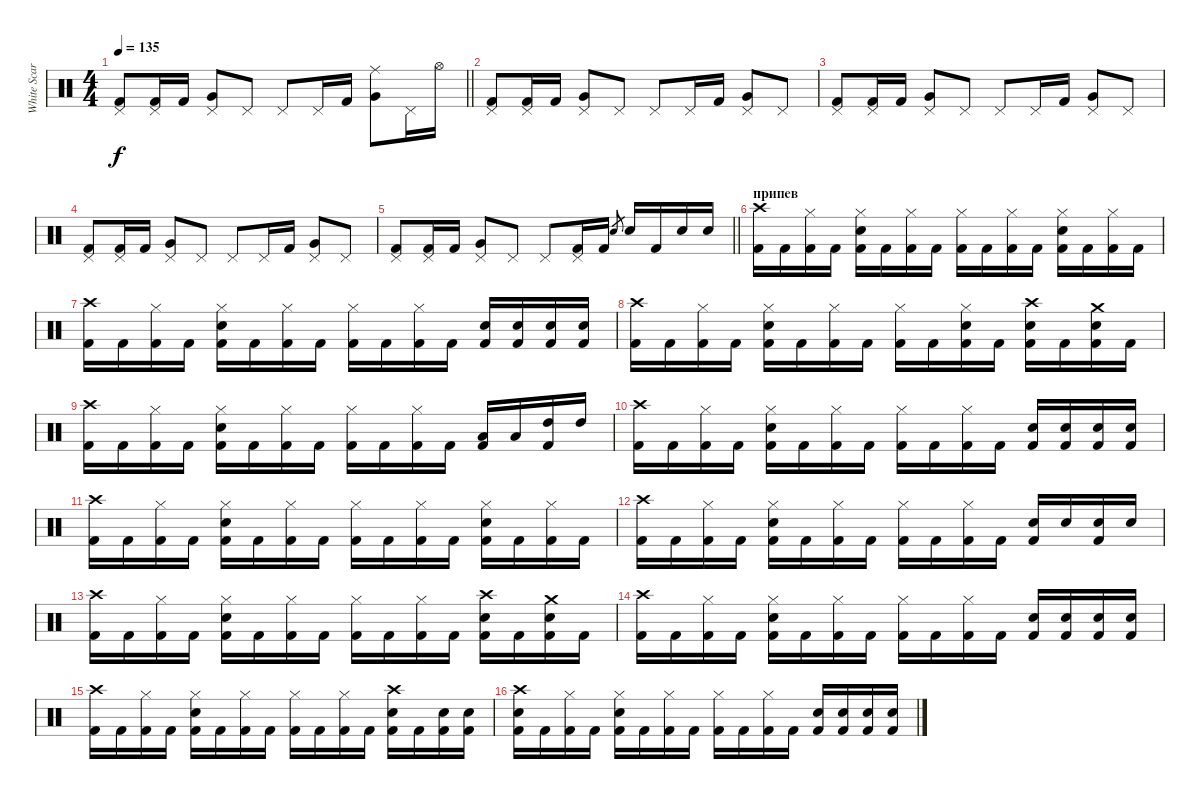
\track ("White Scar" "White Scar") {instrument percussion}
\staff {score}
\articulation defaults
\ts (4 4)
\tempo 135
\clef neutral
\barLineRight lightlight
\ks c
("Pedal Hi-Hat (hit)" "Kick (hit) 2").8{dy f} ("Pedal Hi-Hat (hit)" "Kick (hit) 2").16 "Kick (hit) 2".16 ("Pedal Hi-Hat (hit)" "Very Low Tom (hit)").8 "Pedal Hi-Hat (hit)".8 "Pedal Hi-Hat (hit)".8 "Pedal Hi-Hat (hit)".16 "Kick (hit) 2".16 ("Ride (middle)" "Very Low Tom (hit)").8 "Pedal Hi-Hat (hit)".16 "Hi-Hat (open)".16 |
("Pedal Hi-Hat (hit)" "Kick (hit) 2").8 ("Pedal Hi-Hat (hit)" "Kick (hit) 2").16 "Kick (hit) 2".16 ("Pedal Hi-Hat (hit)" "Very Low Tom (hit)").8 "Pedal Hi-Hat (hit)".8 "Pedal Hi-Hat (hit)".8 "Pedal Hi-Hat (hit)".16 "Kick (hit) 2".16 ("Pedal Hi-Hat (hit)" "Very Low Tom (hit)").8 "Pedal Hi-Hat (hit)".8 |
("Pedal Hi-Hat (hit)" "Kick (hit) 2").8 ("Pedal Hi-Hat (hit)" "Kick (hit) 2").16 "Kick (hit) 2".16 ("Pedal Hi-Hat (hit)" "Very Low Tom (hit)").8 "Pedal Hi-Hat (hit)".8 "Pedal Hi-Hat (hit)".8 "Pedal Hi-Hat (hit)".16 "Kick (hit) 2".16 ("Pedal Hi-Hat (hit)" "Very Low Tom (hit)").8 "Pedal Hi-Hat (hit)".8 |
("Pedal Hi-Hat (hit)" "Kick (hit) 2").8 ("Pedal Hi-Hat (hit)" "Kick (hit) 2").16 "Kick (hit) 2".16 ("Pedal Hi-Hat (hit)" "Very Low Tom (hit)").8 "Pedal Hi-Hat (hit)".8 "Pedal Hi-Hat (hit)".8 "Pedal Hi-Hat (hit)".16 "Kick (hit) 2".16 ("Pedal Hi-Hat (hit)" "Very Low Tom (hit)").8 "Pedal Hi-Hat (hit)".8 |
\barLineRight lightlight
("Pedal Hi-Hat (hit)" "Kick (hit) 2").8 ("Pedal Hi-Hat (hit)" "Kick (hit) 2").16 "Kick (hit) 2".16 ("Pedal Hi-Hat (hit)" "Very Low Tom (hit)").8 "Pedal Hi-Hat (hit)".8 "Pedal Hi-Hat (hit)".8 ("Pedal Hi-Hat (hit)" "Kick (hit) 2").16 "Kick (hit) 2".16 "Snare (hit) 2".8{gr} "Snare (hit) 2".16 "Kick (hit) 2".16 "Snare (hit) 2".16 "Snare (hit) 2".16 |
\section ("" "припев")
("Crash high (hit)" "Kick (hit) 2").16 "Kick (hit) 2".16 ("Hi-Hat (closed)" "Kick (hit) 2").16 "Kick (hit) 2".16 ("Snare (hit) 2" "Hi-Hat (closed)" "Kick (hit) 2").16 "Kick (hit) 2".16 ("Hi-Hat (closed)" "Kick (hit) 2").16 "Kick (hit) 2".16 ("Hi-Hat (closed)" "Kick (hit) 2").16 "Kick (hit) 2".16 ("Hi-Hat (closed)" "Kick (hit) 2").16 "Kick (hit) 2".16 ("Snare (hit) 2" "Hi-Hat (closed)" "Kick (hit) 2").16 "Kick (hit) 2".16 ("Hi-Hat (closed)" "Kick (hit) 2").16 "Kick (hit) 2".16 |
("Crash high (hit)" "Kick (hit) 2").16 "Kick (hit) 2".16 ("Hi-Hat (closed)" "Kick (hit) 2").16 "Kick (hit) 2".16 ("Snare (hit) 2" "Hi-Hat (closed)" "Kick (hit) 2").16 "Kick (hit) 2".16 ("Hi-Hat (closed)" "Kick (hit) 2").16 "Kick (hit) 2".16 ("Hi-Hat (closed)" "Kick (hit) 2").16 "Kick (hit) 2".16 ("Hi-Hat (closed)" "Kick (hit) 2").16 "Kick (hit) 2".16 ("Snare (hit) 2" "Kick (hit) 2").16 ("Snare (hit) 2" "Kick (hit) 2").16 ("Snare (hit) 2" "Kick (hit) 2").16 ("Snare (hit) 2" "Kick (hit) 2").16 |
("Crash high (hit)" "Kick (hit) 2").16 "Kick (hit) 2".16 ("Hi-Hat (closed)" "Kick (hit) 2").16 "Kick (hit) 2".16 ("Snare (hit) 2" "Hi-Hat (closed)" "Kick (hit) 2").16 "Kick (hit) 2".16 ("Hi-Hat (closed)" "Kick (hit) 2").16 "Kick (hit) 2".16 ("Hi-Hat (closed)" "Kick (hit) 2").16 "Kick (hit) 2".16 ("Snare (hit) 2" "Hi-Hat (closed)" "Kick (hit) 2").16 "Kick (hit) 2".16 ("Snare (hit) 2" "Crash high (hit)" "Kick (hit) 2").16 "Kick (hit) 2".16 ("Snare (hit) 2" "Crash medium (hit)" "Kick (hit) 2").16 "Kick (hit) 2".16 |
("Crash high (hit)" "Kick (hit) 2").16 "Kick (hit) 2".16 ("Hi-Hat (closed)" "Kick (hit) 2").16 "Kick (hit) 2".16 ("Snare (hit) 2" "Hi-Hat (closed)" "Kick (hit) 2").16 "Kick (hit) 2".16 ("Hi-Hat (closed)" "Kick (hit) 2").16 "Kick (hit) 2".16 ("Hi-Hat (closed)" "Kick (hit) 2").16 "Kick (hit) 2".16 ("Hi-Hat (closed)" "Kick (hit) 2").16 "Kick (hit) 2".16 ("Low Tom (hit)" "Kick (hit) 2").16 "Low Tom (hit)".16 ("High Tom (hit)" "Kick (hit) 2").16 "High Tom (hit)".16 |
("Crash high (hit)" "Kick (hit) 2").16 "Kick (hit) 2".16 ("Hi-Hat (closed)" "Kick (hit) 2").16 "Kick (hit) 2".16 ("Snare (hit) 2" "Hi-Hat (closed)" "Kick (hit) 2").16 "Kick (hit) 2".16 ("Hi-Hat (closed)" "Kick (hit) 2").16 "Kick (hit) 2".16 ("Hi-Hat (closed)" "Kick (hit) 2").16 "Kick (hit) 2".16 ("Hi-Hat (closed)" "Kick (hit) 2").16 "Kick (hit) 2".16 ("Snare (hit) 2" "Kick (hit) 2").16 ("Snare (hit) 2" "Kick (hit) 2").16 ("Snare (hit) 2" "Kick (hit) 2").16 ("Snare (hit) 2" "Kick (hit) 2").16 |
("Crash high (hit)" "Kick (hit) 2").16 "Kick (hit) 2".16 ("Hi-Hat (closed)" "Kick (hit) 2").16 "Kick (hit) 2".16 ("Snare (hit) 2" "Hi-Hat (closed)" "Kick (hit) 2").16 "Kick (hit) 2".16 ("Hi-Hat (closed)" "Kick (hit) 2").16 "Kick (hit) 2".16 ("Hi-Hat (closed)" "Kick (hit) 2").16 "Kick (hit) 2".16 ("Hi-Hat (closed)" "Kick (hit) 2").16 "Kick (hit) 2".16 ("Snare (hit) 2" "Hi-Hat (closed)" "Kick (hit) 2").16 "Kick (hit) 2".16 ("Hi-Hat (closed)" "Kick (hit) 2").16 "Kick (hit) 2".16 |
("Crash high (hit)" "Kick (hit) 2").16 "Kick (hit) 2".16 ("Hi-Hat (closed)" "Kick (hit) 2").16 "Kick (hit) 2".16 ("Snare (hit) 2" "Hi-Hat (closed)" "Kick (hit) 2").16 "Kick (hit) 2".16 ("Hi-Hat (closed)" "Kick (hit) 2").16 "Kick (hit) 2".16 ("Hi-Hat (closed)" "Kick (hit) 2").16 "Kick (hit) 2".16 ("Hi-Hat (closed)" "Kick (hit) 2").16 "Kick (hit) 2".16 ("Snare (hit) 2" "Kick (hit) 2").16 "Snare (hit) 2".16 ("Snare (hit) 2" "Kick (hit) 2").16 "Snare (hit) 2".16 |
("Crash high (hit)" "Kick (hit) 2").16 "Kick (hit) 2".16 ("Hi-Hat (closed)" "Kick (hit) 2").16 "Kick (hit) 2".16 ("Snare (hit) 2" "Hi-Hat (closed)" "Kick (hit) 2").16 "Kick (hit) 2".16 ("Hi-Hat (closed)" "Kick (hit) 2").16 "Kick (hit) 2".16 ("Hi-Hat (closed)" "Kick (hit) 2").16 "Kick (hit) 2".16 ("Hi-Hat (closed)" "Kick (hit) 2").16 "Kick (hit) 2".16 ("Snare (hit) 2" "Crash high (hit)" "Kick (hit) 2").16 "Kick (hit) 2".16 ("Snare (hit) 2" "Crash medium (hit)" "Kick (hit) 2").16 "Kick (hit) 2".16 |
("Crash high (hit)" "Kick (hit) 2").16 "Kick (hit) 2".16 ("Hi-Hat (closed)" "Kick (hit) 2").16 "Kick (hit) 2".16 ("Snare (hit) 2" "Hi-Hat (closed)" "Kick (hit) 2").16 "Kick (hit) 2".16 ("Hi-Hat (closed)" "Kick (hit) 2").16 "Kick (hit) 2".16 ("Hi-Hat (closed)" "Kick (hit) 2").16 "Kick (hit) 2".16 ("Hi-Hat (closed)" "Kick (hit) 2").16 "Kick (hit) 2".16 ("Snare (hit) 2" "Kick (hit) 2").16 ("Snare (hit) 2" "Kick (hit) 2").16 ("Snare (hit) 2" "Kick (hit) 2").16 ("Snare (hit) 2" "Kick (hit) 2").16 |
("Crash high (hit)" "Kick (hit) 2").16 "Kick (hit) 2".16 ("Hi-Hat (closed)" "Kick (hit) 2").16 "Kick (hit) 2".16 ("Snare (hit) 2" "Hi-Hat (closed)" "Kick (hit) 2").16 "Kick (hit) 2".16 ("Hi-Hat (closed)" "Kick (hit) 2").16 "Kick (hit) 2".16 ("Hi-Hat (closed)" "Kick (hit) 2").16 "Kick (hit) 2".16 ("Hi-Hat (closed)" "Kick (hit) 2").16 "Kick (hit) 2".16 ("Snare (hit) 2" "Crash high (hit)" "Kick (hit) 2").16 "Kick (hit) 2".16 ("Snare (hit) 2" "Kick (hit) 2").16 ("Snare (hit) 2" "Kick (hit) 2").16 |
("Crash high (hit)" "Snare (hit) 2" "Kick (hit) 2").16 "Kick (hit) 2".16 ("Hi-Hat (closed)" "Kick (hit) 2").16 "Kick (hit) 2".16 ("Snare (hit) 2" "Hi-Hat (closed)" "Kick (hit) 2").16 "Kick (hit) 2".16 ("Hi-Hat (closed)" "Kick (hit) 2").16 "Kick (hit) 2".16 ("Hi-Hat (closed)" "Kick (hit) 2").16 "Kick (hit) 2".16 ("Hi-Hat (closed)" "Kick (hit) 2").16 "Kick (hit) 2".16 ("Snare (hit) 2" "Kick (hit) 2").16 ("Snare (hit) 2" "Kick (hit) 2").16 ("Snare (hit) 2" "Kick (hit) 2").16 ("Snare (hit) 2" "Kick (hit) 2").16
